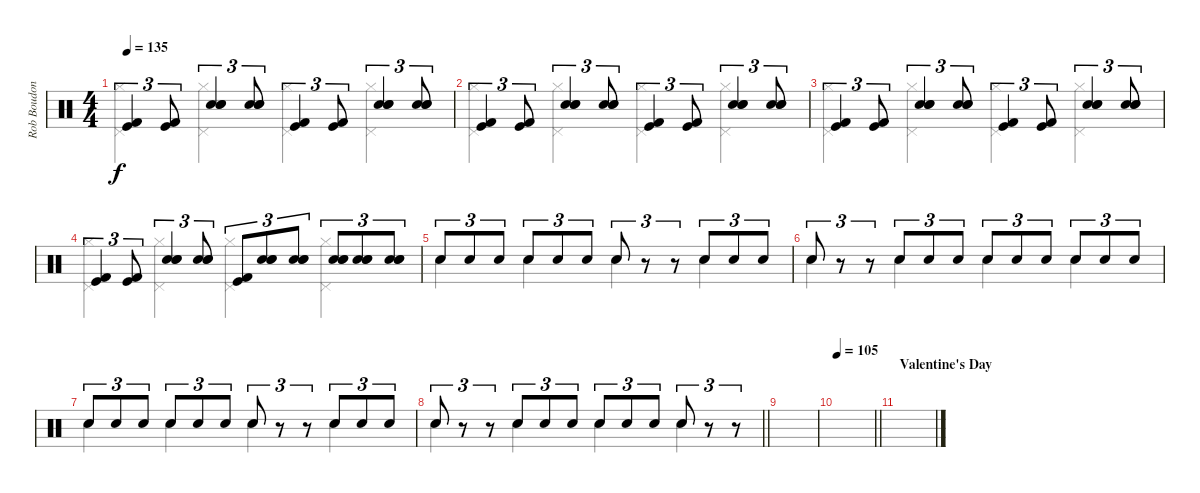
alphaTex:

\track ("Rob Boudon [Drums]" "Rob Boudon") {instrument percussion}
\staff {score}
\articulation defaults
\voice
\ts (4 4)
\tempo 135
\clef neutral
\ks c
("Kick (hit) 2" "Kick (hit)").4{tu (3 2) dy f} ("Kick (hit) 2" "Kick (hit)").8{tu (3 2)} ("Hand Clap (hit)" "Snare (hit) 2" "Electric Snare (hit)").4{tu (3 2)} ("Hand Clap (hit)" "Snare (hit) 2" "Electric Snare (hit)").8{tu (3 2)} ("Kick (hit) 2" "Kick (hit)").4{tu (3 2)} ("Kick (hit) 2" "Kick (hit)").8{tu (3 2)} ("Hand Clap (hit)" "Snare (hit) 2" "Electric Snare (hit)").4{tu (3 2)} ("Hand Clap (hit)" "Snare (hit) 2" "Electric Snare (hit)").8{tu (3 2)} |
("Kick (hit) 2" "Kick (hit)").4{tu (3 2)} ("Kick (hit) 2" "Kick (hit)").8{tu (3 2)} ("Hand Clap (hit)" "Snare (hit) 2" "Electric Snare (hit)").4{tu (3 2)} ("Hand Clap (hit)" "Snare (hit) 2" "Electric Snare (hit)").8{tu (3 2)} ("Kick (hit) 2" "Kick (hit)").4{tu (3 2)} ("Kick (hit) 2" "Kick (hit)").8{tu (3 2)} ("Hand Clap (hit)" "Snare (hit) 2" "Electric Snare (hit)").4{tu (3 2)} ("Hand Clap (hit)" "Snare (hit) 2" "Electric Snare (hit)").8{tu (3 2)} |
("Kick (hit) 2" "Kick (hit)").4{tu (3 2)} ("Kick (hit) 2" "Kick (hit)").8{tu (3 2)} ("Hand Clap (hit)" "Snare (hit) 2" "Electric Snare (hit)").4{tu (3 2)} ("Hand Clap (hit)" "Snare (hit) 2" "Electric Snare (hit)").8{tu (3 2)} ("Kick (hit) 2" "Kick (hit)").4{tu (3 2)} ("Kick (hit) 2" "Kick (hit)").8{tu (3 2)} ("Hand Clap (hit)" "Snare (hit) 2" "Electric Snare (hit)").4{tu (3 2)} ("Hand Clap (hit)" "Snare (hit) 2" "Electric Snare (hit)").8{tu (3 2)} |
("Kick (hit) 2" "Kick (hit)").4{tu (3 2)} ("Kick (hit) 2" "Kick (hit)").8{tu (3 2)} ("Hand Clap (hit)" "Snare (hit) 2" "Electric Snare (hit)").4{tu (3 2)} ("Hand Clap (hit)" "Snare (hit) 2" "Electric Snare (hit)").8{tu (3 2)} ("Kick (hit) 2" "Kick (hit)").8{tu (3 2)} ("Hand Clap (hit)" "Snare (hit) 2" "Electric Snare (hit)").8{tu (3 2)} ("Hand Clap (hit)" "Snare (hit) 2" "Electric Snare (hit)").8{tu (3 2)} ("Hand Clap (hit)" "Snare (hit) 2" "Electric Snare (hit)").8{tu (3 2)} ("Hand Clap (hit)" "Snare (hit) 2" "Electric Snare (hit)").8{tu (3 2)} ("Hand Clap (hit)" "Snare (hit) 2" "Electric Snare (hit)").8{tu (3 2)} |
"Snare (hit) 2".8{tu (3 2)} "Snare (hit) 2".8{tu (3 2)} "Snare (hit) 2".8{tu (3 2)} "Snare (hit) 2".8{tu (3 2)} "Snare (hit) 2".8{tu (3 2)} "Snare (hit) 2".8{tu (3 2)} "Snare (hit) 2".8{tu (3 2)} r.8{tu (3 2)} r.8{tu (3 2)} "Snare (hit) 2".8{tu (3 2)} "Snare (hit) 2".8{tu (3 2)} "Snare (hit) 2".8{tu (3 2)} |
"Snare (hit) 2".8{tu (3 2)} r.8{tu (3 2)} r.8{tu (3 2)} "Snare (hit) 2".8{tu (3 2)} "Snare (hit) 2".8{tu (3 2)} "Snare (hit) 2".8{tu (3 2)} "Snare (hit) 2".8{tu (3 2)} "Snare (hit) 2".8{tu (3 2)} "Snare (hit) 2".8{tu (3 2)} "Snare (hit) 2".8{tu (3 2)} "Snare (hit) 2".8{tu (3 2)} "Snare (hit) 2".8{tu (3 2)} |
"Snare (hit) 2".8{tu (3 2)} "Snare (hit) 2".8{tu (3 2)} "Snare (hit) 2".8{tu (3 2)} "Snare (hit) 2".8{tu (3 2)} "Snare (hit) 2".8{tu (3 2)} "Snare (hit) 2".8{tu (3 2)} "Snare (hit) 2".8{tu (3 2)} r.8{tu (3 2)} r.8{tu (3 2)} "Snare (hit) 2".8{tu (3 2)} "Snare (hit) 2".8{tu (3 2)} "Snare (hit) 2".8{tu (3 2)} |
\barLineRight lightlight "Snare (hit) 2".8{tu (3 2)}
r.8{tu (3 2)} r.8{tu (3 2)} "Snare (hit) 2".8{tu (3 2)} "Snare (hit) 2".8{tu (3 2)} "Snare (hit) 2".8{tu (3 2)} "Snare (hit) 2".8{tu (3 2)} "Snare (hit) 2".8{tu (3 2)} "Snare (hit) 2".8{tu (3 2)} "Snare (hit) 2".8{tu (3 2)} r.8{tu (3 2)} r.8{tu (3 2)} |
|
\tempo 105
\barLineRight lightlight
|
\section ("" "Valentine's Day")
|
|
|
|
|
\voice
\clef neutral
\ottava regular
\simile none
\ks c
("Hi-Hat (closed)" "Pedal Hi-Hat (hit)").4{dy f} ("Hi-Hat (closed)" "Pedal Hi-Hat (hit)").4 ("Hi-Hat (closed)" "Pedal Hi-Hat (hit)").4 ("Hi-Hat (closed)" "Pedal Hi-Hat (hit)").4 |
("Hi-Hat (closed)" "Pedal Hi-Hat (hit)").4 ("Hi-Hat (closed)" "Pedal Hi-Hat (hit)").4 ("Hi-Hat (closed)" "Pedal Hi-Hat (hit)").4 ("Hi-Hat (closed)" "Pedal Hi-Hat (hit)").4 |
("Hi-Hat (closed)" "Pedal Hi-Hat (hit)").4 ("Hi-Hat (closed)" "Pedal Hi-Hat (hit)").4 ("Hi-Hat (closed)" "Pedal Hi-Hat (hit)").4 ("Hi-Hat (closed)" "Pedal Hi-Hat (hit)").4 |
("Hi-Hat (closed)" "Pedal Hi-Hat (hit)").4 ("Hi-Hat (closed)" "Pedal Hi-Hat (hit)").4 ("Hi-Hat (closed)" "Pedal Hi-Hat (hit)").4 ("Hi-Hat (closed)" "Pedal Hi-Hat (hit)").4 |
"Hand Clap (hit)".4 "Hand Clap (hit)".4 "Hand Clap (hit)".4 "Hand Clap (hit)".4 |
"Hand Clap (hit)".4 "Hand Clap (hit)".4 "Hand Clap (hit)".4 "Hand Clap (hit)".4 |
"Hand Clap (hit)".4 "Hand Clap (hit)".4 "Hand Clap (hit)".4 "Hand Clap (hit)".4 |
\barLineRight lightlight "Hand Clap (hit)".4 "Hand Clap (hit)".4 "Hand Clap (hit)".4 "Hand Clap (hit)".4
|
|
\barLineRight lightlight
|
|
|
|
|
|
